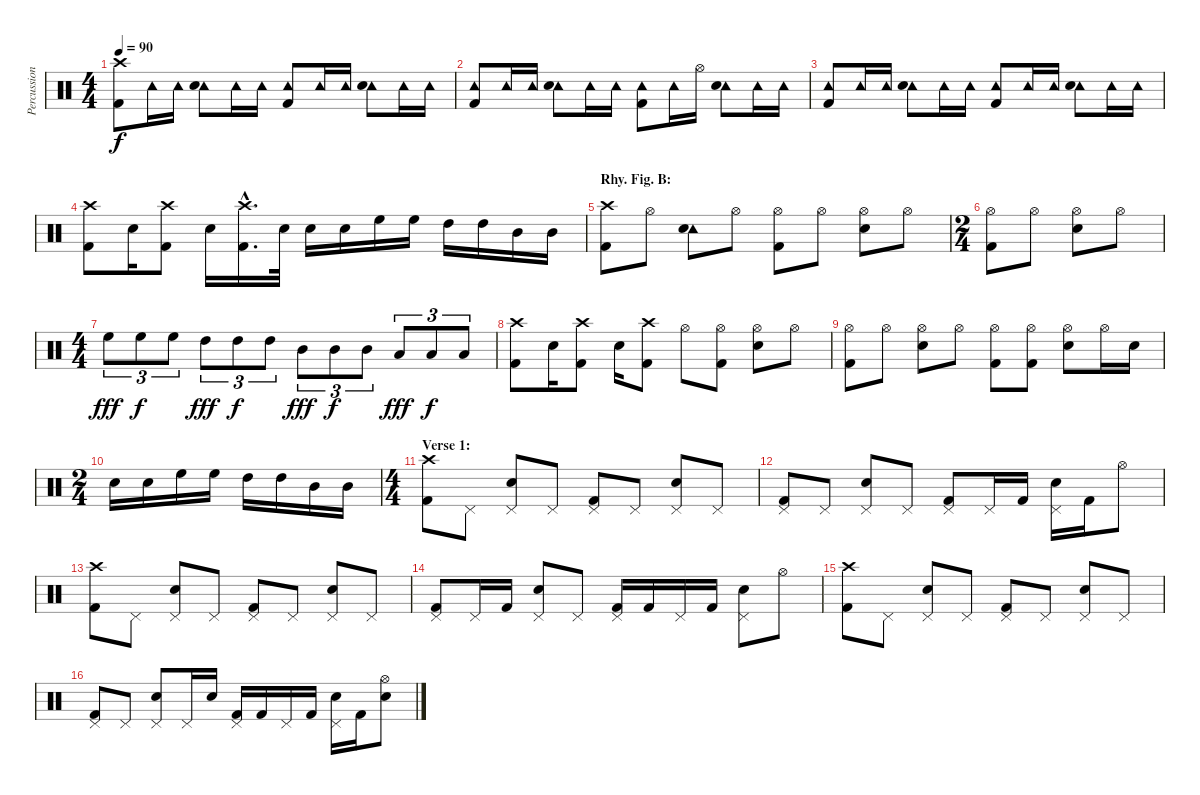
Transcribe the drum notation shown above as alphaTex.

\track ("Percussion" "Percussion") {instrument percussion}
\staff {score}
\articulation defaults
\ts (4 4)
\tempo 90
\clef neutral
\ks c
("Crash high (hit)" "Kick (hit) 2").8{dy f} "Tambourine (hit)".16 "Tambourine (hit)".16 ("Tambourine (hit)" "Electric Snare (hit)").8 "Tambourine (hit)".16 "Tambourine (hit)".16 ("Tambourine (hit)" "Kick (hit) 2").8 "Tambourine (hit)".16 "Tambourine (hit)".16 ("Tambourine (hit)" "Electric Snare (hit)").8 "Tambourine (hit)".16 "Tambourine (hit)".16 |
("Tambourine (hit)" "Kick (hit) 2").8 "Tambourine (hit)".16 "Tambourine (hit)".16 ("Tambourine (hit)" "Electric Snare (hit)").8 "Tambourine (hit)".16 "Tambourine (hit)".16 ("Tambourine (hit)" "Kick (hit) 2").8 "Tambourine (hit)".16 "Hi-Hat (open)".16 ("Tambourine (hit)" "Electric Snare (hit)").8 "Tambourine (hit)".16 "Tambourine (hit)".16 |
("Tambourine (hit)" "Kick (hit) 2").8 "Tambourine (hit)".16 "Tambourine (hit)".16 ("Tambourine (hit)" "Electric Snare (hit)").8 "Tambourine (hit)".16 "Tambourine (hit)".16 ("Tambourine (hit)" "Kick (hit) 2").8 "Tambourine (hit)".16 "Tambourine (hit)".16 ("Tambourine (hit)" "Electric Snare (hit)").8 "Tambourine (hit)".16 "Tambourine (hit)".16 |
("Crash high (hit)" "Kick (hit) 2").8 "Electric Snare (hit)".16 ("Crash high (hit)" "Kick (hit) 2").8 "Electric Snare (hit)".16 ("Crash high (hit)"{hac} "Kick (hit) 2"{hac}).16{d} "Electric Snare (hit)".32 "Electric Snare (hit)".16 "Electric Snare (hit)".16 "High Floor Tom (hit)".16 "High Floor Tom (hit)".16 "High Tom (hit)".16 "High Tom (hit)".16 "Mid Tom (hit)".16 "Mid Tom (hit)".16 |
\section ("" "Rhy. Fig. B:")
("Crash high (hit)" "Kick (hit) 2").8 "Hi-Hat (open)".8 ("Tambourine (hit)" "Electric Snare (hit)").8 "Hi-Hat (open)".8 ("Hi-Hat (open)" "Kick (hit) 2").8 "Hi-Hat (open)".8 ("Hi-Hat (open)" "Electric Snare (hit)").8 "Hi-Hat (open)".8 |
\ts (2 4)
("Hi-Hat (open)" "Kick (hit) 2").8 "Hi-Hat (open)".8 ("Hi-Hat (open)" "Electric Snare (hit)").8 "Hi-Hat (open)".8 |
\ts (4 4)
"High Floor Tom (hit)".8{tu (3 2) dy fff} "High Floor Tom (hit)".8{tu (3 2) dy f} "High Floor Tom (hit)".8{tu (3 2)} "High Tom (hit)".8{tu (3 2) dy fff} "High Tom (hit)".8{tu (3 2) dy f} "High Tom (hit)".8{tu (3 2)} "Mid Tom (hit)".8{tu (3 2) dy fff} "Mid Tom (hit)".8{tu (3 2) dy f} "Mid Tom (hit)".8{tu (3 2)} "Low Tom (hit)".8{tu (3 2) dy fff} "Low Tom (hit)".8{tu (3 2) dy f} "Low Tom (hit)".8{tu (3 2)} |
("Crash high (hit)" "Kick (hit) 2").8 "Electric Snare (hit)".16 ("Crash high (hit)" "Kick (hit) 2").8 "Electric Snare (hit)".16 ("Crash high (hit)" "Kick (hit) 2").8 "Hi-Hat (open)".8 ("Hi-Hat (open)" "Kick (hit) 2").8 ("Hi-Hat (open)" "Electric Snare (hit)").8 "Hi-Hat (open)".8 |
("Hi-Hat (open)" "Kick (hit) 2").8 "Hi-Hat (open)".8 ("Hi-Hat (open)" "Electric Snare (hit)").8 "Hi-Hat (open)".8 ("Hi-Hat (open)" "Kick (hit) 2").8 ("Hi-Hat (open)" "Kick (hit) 2").8 ("Hi-Hat (open)" "Electric Snare (hit)").8 "Hi-Hat (open)".16 "Electric Snare (hit)".16 |
\ts (2 4)
"Electric Snare (hit)".16 "Electric Snare (hit)".16 "High Floor Tom (hit)".16 "High Floor Tom (hit)".16 "High Tom (hit)".16 "High Tom (hit)".16 "Mid Tom (hit)".16 "Mid Tom (hit)".16 |
\ts (4 4)
\section ("" "Verse 1:")
("Crash high (hit)" "Kick (hit) 2").8 "Pedal Hi-Hat (hit)".8 ("Pedal Hi-Hat (hit)" "Electric Snare (hit)").8 "Pedal Hi-Hat (hit)".8 ("Pedal Hi-Hat (hit)" "Kick (hit) 2").8 "Pedal Hi-Hat (hit)".8 ("Pedal Hi-Hat (hit)" "Electric Snare (hit)").8 "Pedal Hi-Hat (hit)".8 |
("Pedal Hi-Hat (hit)" "Kick (hit) 2").8 "Pedal Hi-Hat (hit)".8 ("Pedal Hi-Hat (hit)" "Electric Snare (hit)").8 "Pedal Hi-Hat (hit)".8 ("Pedal Hi-Hat (hit)" "Kick (hit) 2").8 "Pedal Hi-Hat (hit)".16 "Kick (hit) 2".16 ("Pedal Hi-Hat (hit)" "Electric Snare (hit)").16 "Kick (hit) 2".16 "Hi-Hat (open)".8 |
("Crash high (hit)" "Kick (hit) 2").8 "Pedal Hi-Hat (hit)".8 ("Pedal Hi-Hat (hit)" "Electric Snare (hit)").8 "Pedal Hi-Hat (hit)".8 ("Pedal Hi-Hat (hit)" "Kick (hit) 2").8 "Pedal Hi-Hat (hit)".8 ("Pedal Hi-Hat (hit)" "Electric Snare (hit)").8 "Pedal Hi-Hat (hit)".8 |
("Pedal Hi-Hat (hit)" "Kick (hit) 2").8 "Pedal Hi-Hat (hit)".16 "Kick (hit) 2".16 ("Pedal Hi-Hat (hit)" "Electric Snare (hit)").8 "Pedal Hi-Hat (hit)".8 ("Pedal Hi-Hat (hit)" "Kick (hit) 2").16 "Kick (hit) 2".16 "Pedal Hi-Hat (hit)".16 "Kick (hit) 2".16 ("Pedal Hi-Hat (hit)" "Electric Snare (hit)").8 "Hi-Hat (open)".8 |
("Crash high (hit)" "Kick (hit) 2").8 "Pedal Hi-Hat (hit)".8 ("Pedal Hi-Hat (hit)" "Electric Snare (hit)").8 "Pedal Hi-Hat (hit)".8 ("Pedal Hi-Hat (hit)" "Kick (hit) 2").8 "Pedal Hi-Hat (hit)".8 ("Pedal Hi-Hat (hit)" "Electric Snare (hit)").8 "Pedal Hi-Hat (hit)".8 |
("Pedal Hi-Hat (hit)" "Kick (hit) 2").8 "Pedal Hi-Hat (hit)".8 ("Pedal Hi-Hat (hit)" "Electric Snare (hit)").8 "Pedal Hi-Hat (hit)".16 "Electric Snare (hit)".16 ("Pedal Hi-Hat (hit)" "Kick (hit) 2").16 "Kick (hit) 2".16 "Pedal Hi-Hat (hit)".16 "Kick (hit) 2".16 ("Pedal Hi-Hat (hit)" "Electric Snare (hit)").16 "Kick (hit) 2".16 ("Hi-Hat (open)" "Electric Snare (hit)").8
